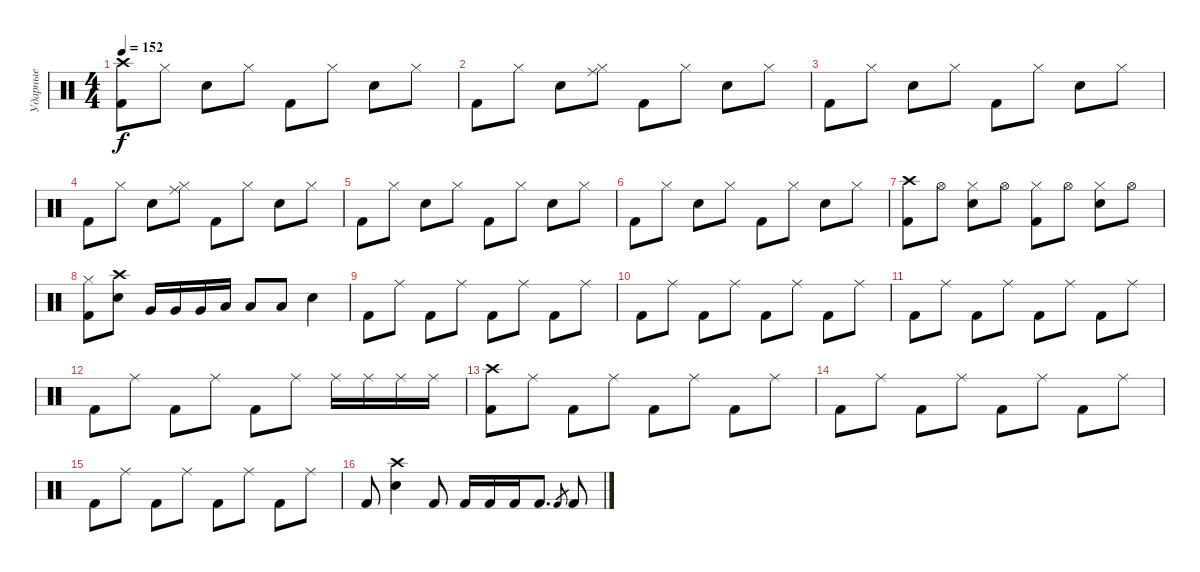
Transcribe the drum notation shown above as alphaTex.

\track ("Ударные" "Ударные") {instrument percussion}
\staff {score}
\articulation defaults
\ts (4 4)
\tempo 152
\clef neutral
\ks c
("Crash high (hit)" "Kick (hit) 2").8{dy f} "Hi-Hat (closed)".8 "Electric Snare (hit)".8 "Hi-Hat (closed)".8 "Kick (hit) 2".8 "Hi-Hat (closed)".8 "Electric Snare (hit)".8 "Hi-Hat (closed)".8 |
"Kick (hit) 2".8 "Hi-Hat (closed)".8 "Electric Snare (hit)".8 ("Ride (middle)" "Hi-Hat (closed)").8 "Kick (hit) 2".8 "Hi-Hat (closed)".8 "Electric Snare (hit)".8 "Hi-Hat (closed)".8 |
"Kick (hit) 2".8 "Hi-Hat (closed)".8 "Electric Snare (hit)".8 "Hi-Hat (closed)".8 "Kick (hit) 2".8 "Hi-Hat (closed)".8 "Electric Snare (hit)".8 "Hi-Hat (closed)".8 |
"Kick (hit) 2".8 "Hi-Hat (closed)".8 "Electric Snare (hit)".8 ("Ride (middle)" "Hi-Hat (closed)").8 "Kick (hit) 2".8 "Hi-Hat (closed)".8 "Electric Snare (hit)".8 "Hi-Hat (closed)".8 |
"Kick (hit) 2".8 "Hi-Hat (closed)".8 "Electric Snare (hit)".8 "Hi-Hat (closed)".8 "Kick (hit) 2".8 "Hi-Hat (closed)".8 "Electric Snare (hit)".8 "Hi-Hat (closed)".8 |
"Kick (hit) 2".8 "Hi-Hat (closed)".8 "Electric Snare (hit)".8 "Hi-Hat (closed)".8 "Kick (hit) 2".8 "Hi-Hat (closed)".8 "Electric Snare (hit)".8 "Hi-Hat (closed)".8 |
("Crash high (hit)" "Kick (hit) 2").8 "Hi-Hat (open)".8 ("Hi-Hat (closed)" "Electric Snare (hit)").8 "Hi-Hat (open)".8 ("Hi-Hat (closed)" "Kick (hit) 2").8 "Hi-Hat (open)".8 ("Hi-Hat (closed)" "Electric Snare (hit)").8 "Hi-Hat (open)".8 |
("Hi-Hat (closed)" "Kick (hit) 2").8 ("Crash high (hit)" "Electric Snare (hit)").8 "Very Low Tom (hit)".16 "Very Low Tom (hit)".16 "Very Low Tom (hit)".16 "Low Floor Tom (hit)".16 "Low Floor Tom (hit)".8 "Low Floor Tom (hit)".8 "Electric Snare (hit)".4 |
"Kick (hit) 2".8 "Ride (middle)".8 "Kick (hit) 2".8 "Ride (middle)".8 "Kick (hit) 2".8 "Ride (middle)".8 "Kick (hit) 2".8 "Ride (middle)".8 |
"Kick (hit) 2".8 "Ride (middle)".8 "Kick (hit) 2".8 "Ride (middle)".8 "Kick (hit) 2".8 "Ride (middle)".8 "Kick (hit) 2".8 "Ride (middle)".8 |
"Kick (hit) 2".8 "Ride (middle)".8 "Kick (hit) 2".8 "Ride (middle)".8 "Kick (hit) 2".8 "Ride (middle)".8 "Kick (hit) 2".8 "Ride (middle)".8 |
"Kick (hit) 2".8 "Ride (middle)".8 "Kick (hit) 2".8 "Ride (middle)".8 "Kick (hit) 2".8 "Ride (middle)".8 "Ride (middle)".16 "Ride (middle)".16 "Ride (middle)".16 "Ride (middle)".16 |
("Crash high (hit)" "Kick (hit) 2").8 "Ride (middle)".8 "Kick (hit) 2".8 "Ride (middle)".8 "Kick (hit) 2".8 "Ride (middle)".8 "Kick (hit) 2".8 "Ride (middle)".8 |
"Kick (hit) 2".8 "Ride (middle)".8 "Kick (hit) 2".8 "Ride (middle)".8 "Kick (hit) 2".8 "Ride (middle)".8 "Kick (hit) 2".8 "Ride (middle)".8 |
"Kick (hit) 2".8 "Ride (middle)".8 "Kick (hit) 2".8 "Ride (middle)".8 "Kick (hit) 2".8 "Ride (middle)".8 "Kick (hit) 2".8 "Ride (middle)".8 |
"Kick (hit) 2".8 ("Crash high (hit)" "Electric Snare (hit)").4 "Kick (hit) 2".8 "Kick (hit) 2".16 "Kick (hit) 2".16 "Kick (hit) 2".16 "Kick (hit) 2".8{d} "Kick (hit) 2".8{gr} "Kick (hit) 2".8
